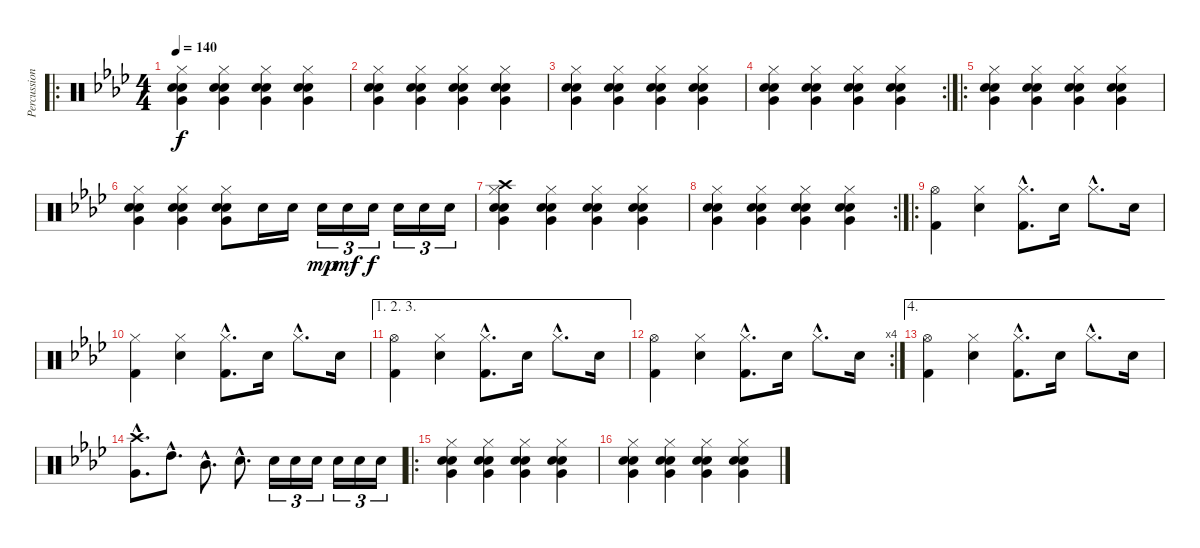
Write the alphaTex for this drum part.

\track ("Percussion" "Percussion") {instrument percussion}
\staff {score}
\articulation defaults
\ro
\ts (4 4)
\tempo 140
\clef neutral
\ks fminor
("Electric Snare (hit)" "Very Low Tom (hit)" "Hand Clap (hit)" "Hi-Hat (closed)").4{dy f} ("Electric Snare (hit)" "Very Low Tom (hit)" "Hand Clap (hit)" "Hi-Hat (closed)").4 ("Electric Snare (hit)" "Very Low Tom (hit)" "Hand Clap (hit)" "Hi-Hat (closed)").4 ("Electric Snare (hit)" "Very Low Tom (hit)" "Hand Clap (hit)" "Hi-Hat (closed)").4 |
("Electric Snare (hit)" "Very Low Tom (hit)" "Hand Clap (hit)" "Hi-Hat (closed)").4 ("Electric Snare (hit)" "Very Low Tom (hit)" "Hand Clap (hit)" "Hi-Hat (closed)").4 ("Electric Snare (hit)" "Very Low Tom (hit)" "Hand Clap (hit)" "Hi-Hat (closed)").4 ("Electric Snare (hit)" "Very Low Tom (hit)" "Hand Clap (hit)" "Hi-Hat (closed)").4 |
("Electric Snare (hit)" "Very Low Tom (hit)" "Hand Clap (hit)" "Hi-Hat (closed)").4 ("Electric Snare (hit)" "Very Low Tom (hit)" "Hand Clap (hit)" "Hi-Hat (closed)").4 ("Electric Snare (hit)" "Very Low Tom (hit)" "Hand Clap (hit)" "Hi-Hat (closed)").4 ("Electric Snare (hit)" "Very Low Tom (hit)" "Hand Clap (hit)" "Hi-Hat (closed)").4 |
\rc 2
("Electric Snare (hit)" "Very Low Tom (hit)" "Hand Clap (hit)" "Hi-Hat (closed)").4 ("Electric Snare (hit)" "Very Low Tom (hit)" "Hand Clap (hit)" "Hi-Hat (closed)").4 ("Electric Snare (hit)" "Very Low Tom (hit)" "Hand Clap (hit)" "Hi-Hat (closed)").4 ("Electric Snare (hit)" "Very Low Tom (hit)" "Hand Clap (hit)" "Hi-Hat (closed)").4 |
\ro
("Electric Snare (hit)" "Very Low Tom (hit)" "Hand Clap (hit)" "Hi-Hat (closed)").4 ("Electric Snare (hit)" "Very Low Tom (hit)" "Hand Clap (hit)" "Hi-Hat (closed)").4 ("Electric Snare (hit)" "Very Low Tom (hit)" "Hand Clap (hit)" "Hi-Hat (closed)").4 ("Electric Snare (hit)" "Very Low Tom (hit)" "Hand Clap (hit)" "Hi-Hat (closed)").4 |
("Electric Snare (hit)" "Very Low Tom (hit)" "Hand Clap (hit)" "Hi-Hat (closed)").4 ("Electric Snare (hit)" "Very Low Tom (hit)" "Hand Clap (hit)" "Hi-Hat (closed)").4 ("Electric Snare (hit)" "Very Low Tom (hit)" "Hand Clap (hit)" "Hi-Hat (closed)").8 "Electric Snare (hit)".16 "Electric Snare (hit)".16 "Electric Snare (hit)".16{tu (3 2) dy mp} "Electric Snare (hit)".16{tu (3 2) dy mf} "Electric Snare (hit)".16{tu (3 2) dy f} "Electric Snare (hit)".16{tu (3 2)} "Electric Snare (hit)".16{tu (3 2)} "Electric Snare (hit)".16{tu (3 2)} |
("Electric Snare (hit)" "Very Low Tom (hit)" "Hand Clap (hit)" "Hi-Hat (closed)" "Crash high (hit)").4 ("Electric Snare (hit)" "Very Low Tom (hit)" "Hand Clap (hit)" "Hi-Hat (closed)").4 ("Electric Snare (hit)" "Very Low Tom (hit)" "Hand Clap (hit)" "Hi-Hat (closed)").4 ("Electric Snare (hit)" "Very Low Tom (hit)" "Hand Clap (hit)" "Hi-Hat (closed)").4 |
\rc 2
("Electric Snare (hit)" "Very Low Tom (hit)" "Hand Clap (hit)" "Hi-Hat (closed)").4 ("Electric Snare (hit)" "Very Low Tom (hit)" "Hand Clap (hit)" "Hi-Hat (closed)").4 ("Electric Snare (hit)" "Very Low Tom (hit)" "Hand Clap (hit)" "Hi-Hat (closed)").4 ("Electric Snare (hit)" "Very Low Tom (hit)" "Hand Clap (hit)" "Hi-Hat (closed)").4 |
\ro
("Hi-Hat (open)" "Kick (hit) 2").4 ("Hi-Hat (closed)" "Electric Snare (hit)").4 ("Hi-Hat (closed)"{hac} "Kick (hit) 2"{hac}).8{d} "Electric Snare (hit)".16 "Hi-Hat (closed)"{hac}.8{d} "Electric Snare (hit)".16 |
("Hi-Hat (closed)" "Kick (hit) 2").4 ("Hi-Hat (closed)" "Electric Snare (hit)").4 ("Hi-Hat (closed)"{hac} "Kick (hit) 2"{hac}).8{d} "Electric Snare (hit)".16 "Hi-Hat (closed)"{hac}.8{d} "Electric Snare (hit)".16 |
\ae (1 2 3)
("Hi-Hat (open)" "Kick (hit) 2").4 ("Hi-Hat (closed)" "Electric Snare (hit)").4 ("Hi-Hat (closed)"{hac} "Kick (hit) 2"{hac}).8{d} "Electric Snare (hit)".16 "Hi-Hat (closed)"{hac}.8{d} "Electric Snare (hit)".16 |
\rc 4
("Hi-Hat (open)" "Kick (hit) 2").4 ("Hi-Hat (closed)" "Electric Snare (hit)").4 ("Hi-Hat (closed)"{hac} "Kick (hit) 2"{hac}).8{d} "Electric Snare (hit)".16 "Hi-Hat (closed)"{hac}.8{d} "Electric Snare (hit)".16 |
\ae 4
("Hi-Hat (open)" "Kick (hit) 2").4 ("Hi-Hat (closed)" "Electric Snare (hit)").4 ("Hi-Hat (closed)"{hac} "Kick (hit) 2"{hac}).8{d} "Electric Snare (hit)".16 "Hi-Hat (closed)"{hac}.8{d} "Electric Snare (hit)".16 |
("Very Low Tom (hit)"{hac} "Crash high (hit)"{hac}).8{d} "High Tom (hit)"{hac}.8{d} "Mid Tom (hit)"{hac}.8{d} "Electric Snare (hit)"{hac}.8{d} "Electric Snare (hit)".16{tu (3 2)} "Electric Snare (hit)".16{tu (3 2)} "Electric Snare (hit)".16{tu (3 2)} "Electric Snare (hit)".16{tu (3 2)} "Electric Snare (hit)".16{tu (3 2)} "Electric Snare (hit)".16{tu (3 2)} |
\ro
("Electric Snare (hit)" "Very Low Tom (hit)" "Hand Clap (hit)" "Hi-Hat (closed)").4 ("Electric Snare (hit)" "Very Low Tom (hit)" "Hand Clap (hit)" "Hi-Hat (closed)").4 ("Electric Snare (hit)" "Very Low Tom (hit)" "Hand Clap (hit)" "Hi-Hat (closed)").4 ("Electric Snare (hit)" "Very Low Tom (hit)" "Hand Clap (hit)" "Hi-Hat (closed)").4 |
("Electric Snare (hit)" "Very Low Tom (hit)" "Hand Clap (hit)" "Hi-Hat (closed)").4 ("Electric Snare (hit)" "Very Low Tom (hit)" "Hand Clap (hit)" "Hi-Hat (closed)").4 ("Electric Snare (hit)" "Very Low Tom (hit)" "Hand Clap (hit)" "Hi-Hat (closed)").4 ("Electric Snare (hit)" "Very Low Tom (hit)" "Hand Clap (hit)" "Hi-Hat (closed)").4
